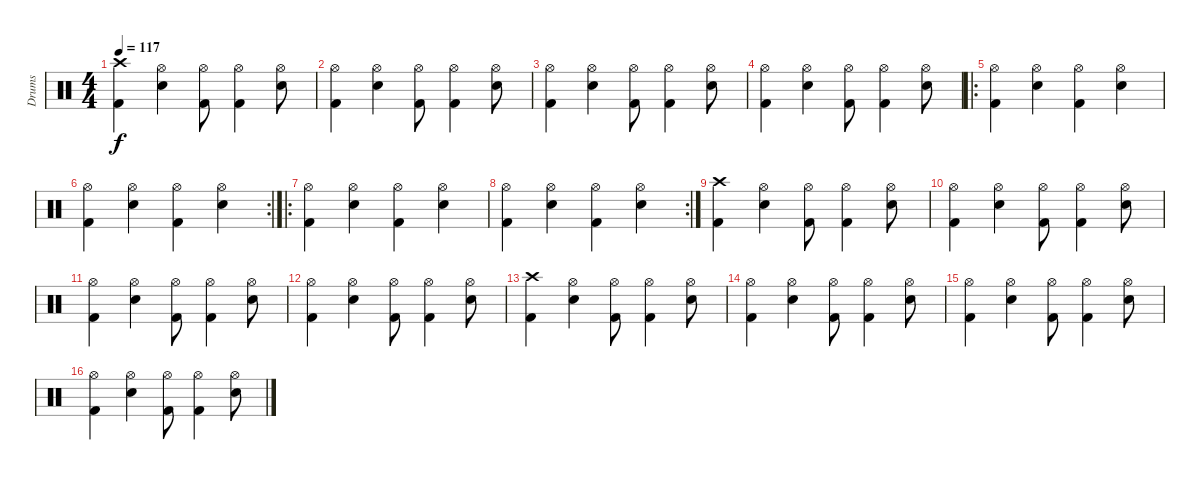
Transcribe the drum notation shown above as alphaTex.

\track ("Drums" "Drums") {instrument percussion}
\staff {score}
\articulation defaults
\ts (4 4)
\tempo 117
\clef neutral
\ks c
("Crash high (hit)" "Kick (hit) 2").4{dy f} ("Hi-Hat (open)" "Snare (hit) 2").4 ("Hi-Hat (open)" "Kick (hit) 2").8 ("Hi-Hat (open)" "Kick (hit) 2").4 ("Hi-Hat (open)" "Snare (hit) 2").8 |
("Hi-Hat (open)" "Kick (hit) 2").4 ("Hi-Hat (open)" "Snare (hit) 2").4 ("Hi-Hat (open)" "Kick (hit) 2").8 ("Hi-Hat (open)" "Kick (hit) 2").4 ("Hi-Hat (open)" "Snare (hit) 2").8 |
("Hi-Hat (open)" "Kick (hit) 2").4 ("Hi-Hat (open)" "Snare (hit) 2").4 ("Hi-Hat (open)" "Kick (hit) 2").8 ("Hi-Hat (open)" "Kick (hit) 2").4 ("Hi-Hat (open)" "Snare (hit) 2").8 |
("Hi-Hat (open)" "Kick (hit) 2").4 ("Hi-Hat (open)" "Snare (hit) 2").4 ("Hi-Hat (open)" "Kick (hit) 2").8 ("Hi-Hat (open)" "Kick (hit) 2").4 ("Hi-Hat (open)" "Snare (hit) 2").8 |
\ro
("Hi-Hat (open)" "Kick (hit) 2").4 ("Hi-Hat (open)" "Snare (hit) 2").4 ("Hi-Hat (open)" "Kick (hit) 2").4 ("Hi-Hat (open)" "Snare (hit) 2").4 |
\rc 2
("Hi-Hat (open)" "Kick (hit) 2").4 ("Hi-Hat (open)" "Snare (hit) 2").4 ("Hi-Hat (open)" "Kick (hit) 2").4 ("Hi-Hat (open)" "Snare (hit) 2").4 |
\ro
("Hi-Hat (open)" "Kick (hit) 2").4 ("Hi-Hat (open)" "Snare (hit) 2").4 ("Hi-Hat (open)" "Kick (hit) 2").4 ("Hi-Hat (open)" "Snare (hit) 2").4 |
\rc 2
("Hi-Hat (open)" "Kick (hit) 2").4 ("Hi-Hat (open)" "Snare (hit) 2").4 ("Hi-Hat (open)" "Kick (hit) 2").4 ("Hi-Hat (open)" "Snare (hit) 2").4 |
("Crash high (hit)" "Kick (hit) 2").4 ("Hi-Hat (open)" "Snare (hit) 2").4 ("Hi-Hat (open)" "Kick (hit) 2").8 ("Hi-Hat (open)" "Kick (hit) 2").4 ("Hi-Hat (open)" "Snare (hit) 2").8 |
("Hi-Hat (open)" "Kick (hit) 2").4 ("Hi-Hat (open)" "Snare (hit) 2").4 ("Hi-Hat (open)" "Kick (hit) 2").8 ("Hi-Hat (open)" "Kick (hit) 2").4 ("Hi-Hat (open)" "Snare (hit) 2").8 |
("Hi-Hat (open)" "Kick (hit) 2").4 ("Hi-Hat (open)" "Snare (hit) 2").4 ("Hi-Hat (open)" "Kick (hit) 2").8 ("Hi-Hat (open)" "Kick (hit) 2").4 ("Hi-Hat (open)" "Snare (hit) 2").8 |
("Hi-Hat (open)" "Kick (hit) 2").4 ("Hi-Hat (open)" "Snare (hit) 2").4 ("Hi-Hat (open)" "Kick (hit) 2").8 ("Hi-Hat (open)" "Kick (hit) 2").4 ("Hi-Hat (open)" "Snare (hit) 2").8 |
("Crash high (hit)" "Kick (hit) 2").4 ("Hi-Hat (open)" "Snare (hit) 2").4 ("Hi-Hat (open)" "Kick (hit) 2").8 ("Hi-Hat (open)" "Kick (hit) 2").4 ("Hi-Hat (open)" "Snare (hit) 2").8 |
("Hi-Hat (open)" "Kick (hit) 2").4 ("Hi-Hat (open)" "Snare (hit) 2").4 ("Hi-Hat (open)" "Kick (hit) 2").8 ("Hi-Hat (open)" "Kick (hit) 2").4 ("Hi-Hat (open)" "Snare (hit) 2").8 |
("Hi-Hat (open)" "Kick (hit) 2").4 ("Hi-Hat (open)" "Snare (hit) 2").4 ("Hi-Hat (open)" "Kick (hit) 2").8 ("Hi-Hat (open)" "Kick (hit) 2").4 ("Hi-Hat (open)" "Snare (hit) 2").8 |
("Hi-Hat (open)" "Kick (hit) 2").4 ("Hi-Hat (open)" "Snare (hit) 2").4 ("Hi-Hat (open)" "Kick (hit) 2").8 ("Hi-Hat (open)" "Kick (hit) 2").4 ("Hi-Hat (open)" "Snare (hit) 2").8
